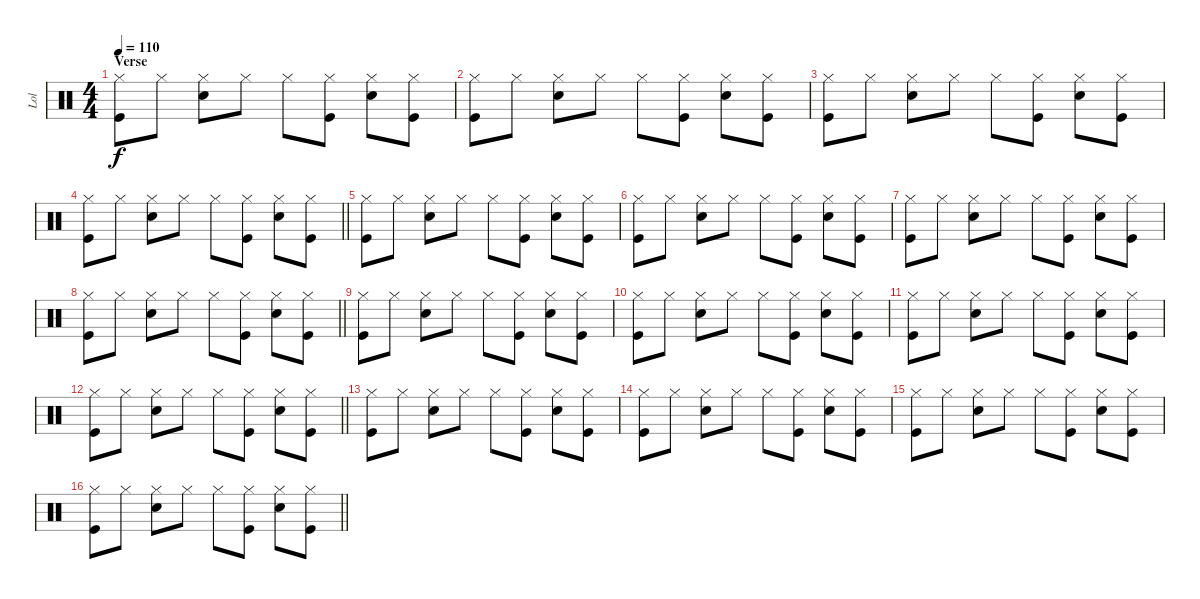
\track ("Lol" "Lol") {instrument percussion}
\staff {score}
\articulation defaults
\ts (4 4)
\section ("" "Verse")
\tempo 110
\clef neutral
\ks c
("Hi-Hat (closed)" "Kick (hit)").8{dy f} "Hi-Hat (closed)".8 ("Hi-Hat (closed)" "Electric Snare (hit)").8 "Hi-Hat (closed)".8 "Hi-Hat (closed)".8 ("Hi-Hat (closed)" "Kick (hit)").8 ("Hi-Hat (closed)" "Electric Snare (hit)").8 ("Hi-Hat (closed)" "Kick (hit)").8 |
("Hi-Hat (closed)" "Kick (hit)").8 "Hi-Hat (closed)".8 ("Hi-Hat (closed)" "Electric Snare (hit)").8 "Hi-Hat (closed)".8 "Hi-Hat (closed)".8 ("Hi-Hat (closed)" "Kick (hit)").8 ("Hi-Hat (closed)" "Electric Snare (hit)").8 ("Hi-Hat (closed)" "Kick (hit)").8 |
("Hi-Hat (closed)" "Kick (hit)").8 "Hi-Hat (closed)".8 ("Hi-Hat (closed)" "Electric Snare (hit)").8 "Hi-Hat (closed)".8 "Hi-Hat (closed)".8 ("Hi-Hat (closed)" "Kick (hit)").8 ("Hi-Hat (closed)" "Electric Snare (hit)").8 ("Hi-Hat (closed)" "Kick (hit)").8 |
\barLineRight lightlight
("Hi-Hat (closed)" "Kick (hit)").8 "Hi-Hat (closed)".8 ("Hi-Hat (closed)" "Electric Snare (hit)").8 "Hi-Hat (closed)".8 "Hi-Hat (closed)".8 ("Hi-Hat (closed)" "Kick (hit)").8 ("Hi-Hat (closed)" "Electric Snare (hit)").8 ("Hi-Hat (closed)" "Kick (hit)").8 |
("Hi-Hat (closed)" "Kick (hit)").8 "Hi-Hat (closed)".8 ("Hi-Hat (closed)" "Electric Snare (hit)").8 "Hi-Hat (closed)".8 "Hi-Hat (closed)".8 ("Hi-Hat (closed)" "Kick (hit)").8 ("Hi-Hat (closed)" "Electric Snare (hit)").8 ("Hi-Hat (closed)" "Kick (hit)").8 |
("Hi-Hat (closed)" "Kick (hit)").8 "Hi-Hat (closed)".8 ("Hi-Hat (closed)" "Electric Snare (hit)").8 "Hi-Hat (closed)".8 "Hi-Hat (closed)".8 ("Hi-Hat (closed)" "Kick (hit)").8 ("Hi-Hat (closed)" "Electric Snare (hit)").8 ("Hi-Hat (closed)" "Kick (hit)").8 |
("Hi-Hat (closed)" "Kick (hit)").8 "Hi-Hat (closed)".8 ("Hi-Hat (closed)" "Electric Snare (hit)").8 "Hi-Hat (closed)".8 "Hi-Hat (closed)".8 ("Hi-Hat (closed)" "Kick (hit)").8 ("Hi-Hat (closed)" "Electric Snare (hit)").8 ("Hi-Hat (closed)" "Kick (hit)").8 |
\barLineRight lightlight
("Hi-Hat (closed)" "Kick (hit)").8 "Hi-Hat (closed)".8 ("Hi-Hat (closed)" "Electric Snare (hit)").8 "Hi-Hat (closed)".8 "Hi-Hat (closed)".8 ("Hi-Hat (closed)" "Kick (hit)").8 ("Hi-Hat (closed)" "Electric Snare (hit)").8 ("Hi-Hat (closed)" "Kick (hit)").8 |
("Hi-Hat (closed)" "Kick (hit)").8 "Hi-Hat (closed)".8 ("Hi-Hat (closed)" "Electric Snare (hit)").8 "Hi-Hat (closed)".8 "Hi-Hat (closed)".8 ("Hi-Hat (closed)" "Kick (hit)").8 ("Hi-Hat (closed)" "Electric Snare (hit)").8 ("Hi-Hat (closed)" "Kick (hit)").8 |
("Hi-Hat (closed)" "Kick (hit)").8 "Hi-Hat (closed)".8 ("Hi-Hat (closed)" "Electric Snare (hit)").8 "Hi-Hat (closed)".8 "Hi-Hat (closed)".8 ("Hi-Hat (closed)" "Kick (hit)").8 ("Hi-Hat (closed)" "Electric Snare (hit)").8 ("Hi-Hat (closed)" "Kick (hit)").8 |
("Hi-Hat (closed)" "Kick (hit)").8 "Hi-Hat (closed)".8 ("Hi-Hat (closed)" "Electric Snare (hit)").8 "Hi-Hat (closed)".8 "Hi-Hat (closed)".8 ("Hi-Hat (closed)" "Kick (hit)").8 ("Hi-Hat (closed)" "Electric Snare (hit)").8 ("Hi-Hat (closed)" "Kick (hit)").8 |
\barLineRight lightlight
("Hi-Hat (closed)" "Kick (hit)").8 "Hi-Hat (closed)".8 ("Hi-Hat (closed)" "Electric Snare (hit)").8 "Hi-Hat (closed)".8 "Hi-Hat (closed)".8 ("Hi-Hat (closed)" "Kick (hit)").8 ("Hi-Hat (closed)" "Electric Snare (hit)").8 ("Hi-Hat (closed)" "Kick (hit)").8 |
("Hi-Hat (closed)" "Kick (hit)").8 "Hi-Hat (closed)".8 ("Hi-Hat (closed)" "Electric Snare (hit)").8 "Hi-Hat (closed)".8 "Hi-Hat (closed)".8 ("Hi-Hat (closed)" "Kick (hit)").8 ("Hi-Hat (closed)" "Electric Snare (hit)").8 ("Hi-Hat (closed)" "Kick (hit)").8 |
("Hi-Hat (closed)" "Kick (hit)").8 "Hi-Hat (closed)".8 ("Hi-Hat (closed)" "Electric Snare (hit)").8 "Hi-Hat (closed)".8 "Hi-Hat (closed)".8 ("Hi-Hat (closed)" "Kick (hit)").8 ("Hi-Hat (closed)" "Electric Snare (hit)").8 ("Hi-Hat (closed)" "Kick (hit)").8 |
("Hi-Hat (closed)" "Kick (hit)").8 "Hi-Hat (closed)".8 ("Hi-Hat (closed)" "Electric Snare (hit)").8 "Hi-Hat (closed)".8 "Hi-Hat (closed)".8 ("Hi-Hat (closed)" "Kick (hit)").8 ("Hi-Hat (closed)" "Electric Snare (hit)").8 ("Hi-Hat (closed)" "Kick (hit)").8 |
\barLineRight lightlight
("Hi-Hat (closed)" "Kick (hit)").8 "Hi-Hat (closed)".8 ("Hi-Hat (closed)" "Electric Snare (hit)").8 "Hi-Hat (closed)".8 "Hi-Hat (closed)".8 ("Hi-Hat (closed)" "Kick (hit)").8 ("Hi-Hat (closed)" "Electric Snare (hit)").8 ("Hi-Hat (closed)" "Kick (hit)").8
